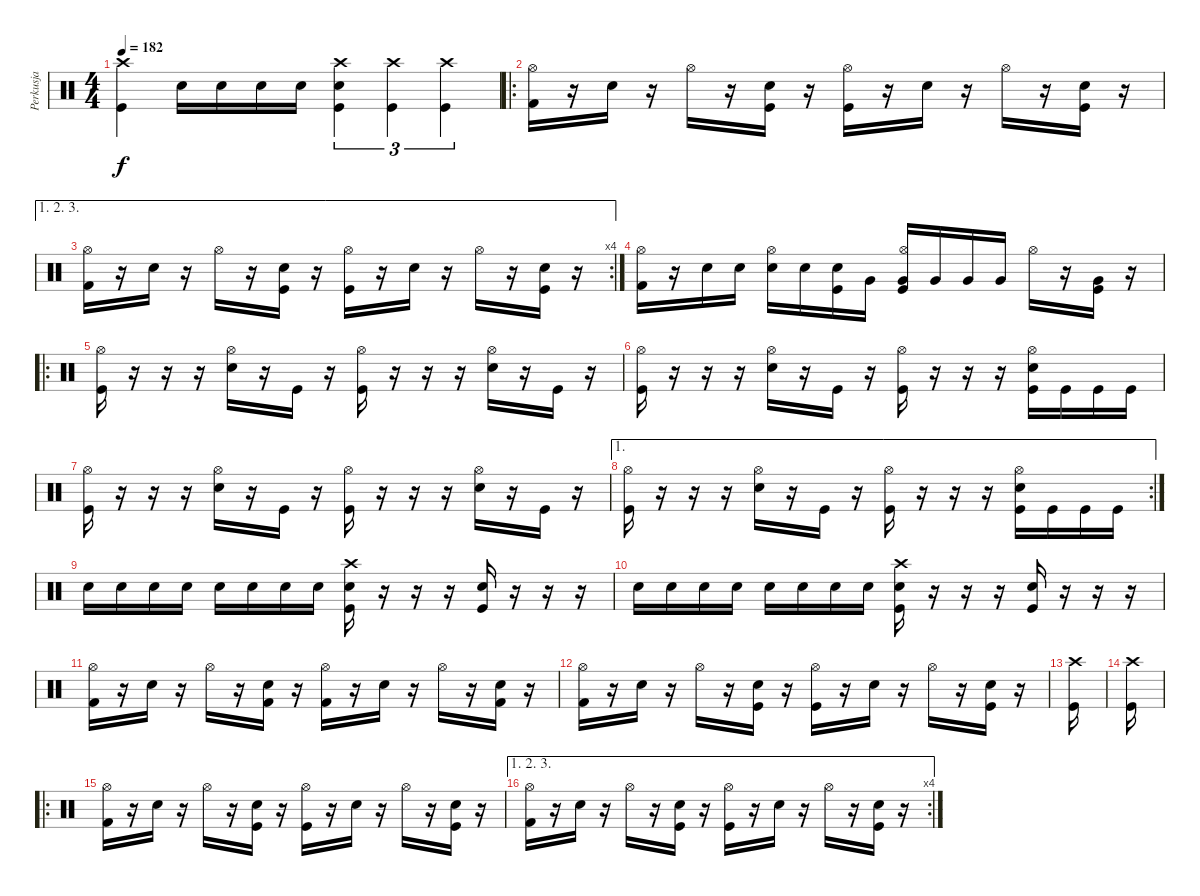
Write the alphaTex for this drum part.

\track ("Perkusja" "Perkusja") {instrument percussion}
\staff {score}
\articulation defaults
\ts (4 4)
\tempo 182
\clef neutral
\ks c
("Crash high (hit)" "Kick (hit)").4{dy f} "Snare (hit) 2".16 "Snare (hit) 2".16 "Snare (hit) 2".16 "Snare (hit) 2".16 ("Crash high (hit)" "Snare (hit) 2" "Kick (hit)").4{tu (3 2)} ("Crash high (hit)" "Kick (hit)").4{tu (3 2)} ("Crash high (hit)" "Kick (hit)").4{tu (3 2)} |
\ro
("Hi-Hat (open)" "Kick (hit) 2").16 r.16 "Snare (hit) 2".16 r.16 "Hi-Hat (open)".16 r.16 ("Snare (hit) 2" "Kick (hit)").16 r.16 ("Hi-Hat (open)" "Kick (hit)").16 r.16 "Snare (hit) 2".16 r.16 "Hi-Hat (open)".16 r.16 ("Snare (hit) 2" "Kick (hit)").16 r.16 |
\ae (1 2 3)
\rc 4
("Hi-Hat (open)" "Kick (hit) 2").16 r.16 "Snare (hit) 2".16 r.16 "Hi-Hat (open)".16 r.16 ("Snare (hit) 2" "Kick (hit)").16 r.16 ("Hi-Hat (open)" "Kick (hit)").16 r.16 "Snare (hit) 2".16 r.16 "Hi-Hat (open)".16 r.16 ("Snare (hit) 2" "Kick (hit)").16 r.16 |
("Hi-Hat (open)" "Kick (hit) 2").16 r.16 "Snare (hit) 2".16 "Snare (hit) 2".16 ("Hi-Hat (open)" "Snare (hit) 2").16 "Snare (hit) 2".16 ("Snare (hit) 2" "Kick (hit)").16 "Very Low Tom (hit)".16 ("Hi-Hat (open)" "Very Low Tom (hit)" "Kick (hit)").16 "Very Low Tom (hit)".16 "Very Low Tom (hit)".16 "Very Low Tom (hit)".16 "Hi-Hat (open)".16 r.16 ("Very Low Tom (hit)" "Kick (hit)").16 r.16 |
\ro
("Hi-Hat (open)" "Kick (hit)").16 r.16 r.16 r.16 ("Hi-Hat (open)" "Snare (hit) 2").16 r.16 "Kick (hit)".16 r.16 ("Hi-Hat (open)" "Kick (hit)").16 r.16 r.16 r.16 ("Hi-Hat (open)" "Snare (hit) 2").16 r.16 "Kick (hit)".16 r.16 |
("Hi-Hat (open)" "Kick (hit)").16 r.16 r.16 r.16 ("Hi-Hat (open)" "Snare (hit) 2").16 r.16 "Kick (hit)".16 r.16 ("Hi-Hat (open)" "Kick (hit)").16 r.16 r.16 r.16 ("Hi-Hat (open)" "Snare (hit) 2" "Kick (hit)").16 "Kick (hit)".16 "Kick (hit)".16 "Kick (hit)".16 |
("Hi-Hat (open)" "Kick (hit)").16 r.16 r.16 r.16 ("Hi-Hat (open)" "Snare (hit) 2").16 r.16 "Kick (hit)".16 r.16 ("Hi-Hat (open)" "Kick (hit)").16 r.16 r.16 r.16 ("Hi-Hat (open)" "Snare (hit) 2").16 r.16 "Kick (hit)".16 r.16 |
\ae 1
\rc 2
("Hi-Hat (open)" "Kick (hit)").16 r.16 r.16 r.16 ("Hi-Hat (open)" "Snare (hit) 2").16 r.16 "Kick (hit)".16 r.16 ("Hi-Hat (open)" "Kick (hit)").16 r.16 r.16 r.16 ("Hi-Hat (open)" "Snare (hit) 2" "Kick (hit)").16 "Kick (hit)".16 "Kick (hit)".16 "Kick (hit)".16 |
"Snare (hit) 2".16 "Snare (hit) 2".16 "Snare (hit) 2".16 "Snare (hit) 2".16 "Snare (hit) 2".16 "Snare (hit) 2".16 "Snare (hit) 2".16 "Snare (hit) 2".16 ("Crash high (hit)" "Snare (hit) 2" "Kick (hit)").16 r.16 r.16 r.16 ("Snare (hit) 2" "Kick (hit)").16 r.16 r.16 r.16 |
"Snare (hit) 2".16 "Snare (hit) 2".16 "Snare (hit) 2".16 "Snare (hit) 2".16 "Snare (hit) 2".16 "Snare (hit) 2".16 "Snare (hit) 2".16 "Snare (hit) 2".16 ("Crash high (hit)" "Snare (hit) 2" "Kick (hit)").16 r.16 r.16 r.16 ("Snare (hit) 2" "Kick (hit)").16 r.16 r.16 r.16 |
("Hi-Hat (open)" "Kick (hit) 2").16 r.16 "Snare (hit) 2".16 r.16 "Hi-Hat (open)".16 r.16 ("Snare (hit) 2" "Kick (hit) 2").16 r.16 ("Hi-Hat (open)" "Kick (hit) 2").16 r.16 "Snare (hit) 2".16 r.16 "Hi-Hat (open)".16 r.16 ("Snare (hit) 2" "Kick (hit) 2").16 r.16 |
("Hi-Hat (open)" "Kick (hit) 2").16 r.16 "Snare (hit) 2".16 r.16 "Hi-Hat (open)".16 r.16 ("Snare (hit) 2" "Kick (hit)").16 r.16 ("Hi-Hat (open)" "Kick (hit)").16 r.16 "Snare (hit) 2".16 r.16 "Hi-Hat (open)".16 r.16 ("Snare (hit) 2" "Kick (hit)").16 r.16 |
("Crash high (hit)" "Kick (hit)").16 |
("Crash high (hit)" "Kick (hit)").16 |
\ro
("Hi-Hat (open)" "Kick (hit) 2").16 r.16 "Snare (hit) 2".16 r.16 "Hi-Hat (open)".16 r.16 ("Snare (hit) 2" "Kick (hit)").16 r.16 ("Hi-Hat (open)" "Kick (hit)").16 r.16 "Snare (hit) 2".16 r.16 "Hi-Hat (open)".16 r.16 ("Snare (hit) 2" "Kick (hit)").16 r.16 |
\ae (1 2 3)
\rc 4
("Hi-Hat (open)" "Kick (hit) 2").16 r.16 "Snare (hit) 2".16 r.16 "Hi-Hat (open)".16 r.16 ("Snare (hit) 2" "Kick (hit)").16 r.16 ("Hi-Hat (open)" "Kick (hit)").16 r.16 "Snare (hit) 2".16 r.16 "Hi-Hat (open)".16 r.16 ("Snare (hit) 2" "Kick (hit)").16 r.16
